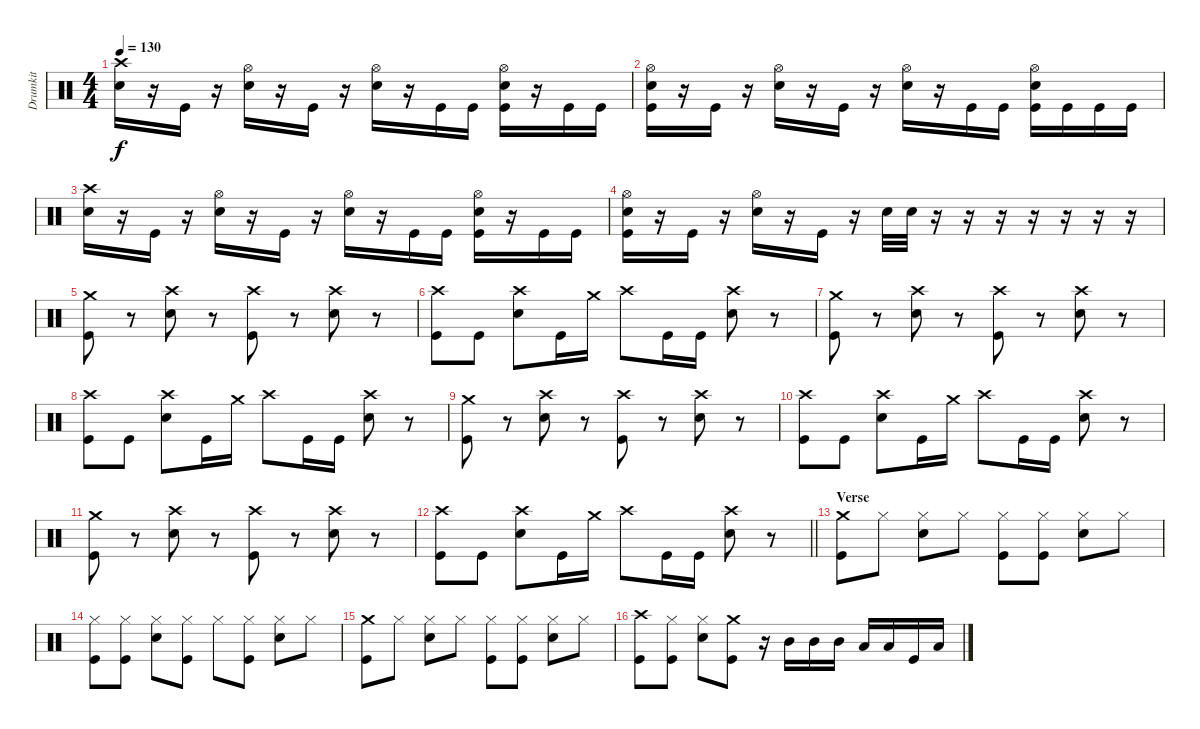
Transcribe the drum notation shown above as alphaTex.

\track ("Drumkit" "Drumkit") {instrument percussion}
\staff {score}
\articulation defaults
\ts (4 4)
\tempo 130
\clef neutral
\ks c
("Crash high (hit)" "Snare (hit) 2").16{dy f} r.16 "Kick (hit)".16 r.16 ("Hi-Hat (open)" "Snare (hit) 2").16 r.16 "Kick (hit)".16 r.16 ("Hi-Hat (open)" "Snare (hit) 2").16 r.16 "Kick (hit)".16 "Kick (hit)".16 ("Hi-Hat (open)" "Snare (hit) 2" "Kick (hit)").16 r.16 "Kick (hit)".16 "Kick (hit)".16 |
("Hi-Hat (open)" "Snare (hit) 2" "Kick (hit)").16 r.16 "Kick (hit)".16 r.16 ("Hi-Hat (open)" "Snare (hit) 2").16 r.16 "Kick (hit)".16 r.16 ("Hi-Hat (open)" "Snare (hit) 2").16 r.16 "Kick (hit)".16 "Kick (hit)".16 ("Hi-Hat (open)" "Snare (hit) 2" "Kick (hit)").16 "Kick (hit)".16 "Kick (hit)".16 "Kick (hit)".16 |
("Crash high (hit)" "Snare (hit) 2").16 r.16 "Kick (hit)".16 r.16 ("Hi-Hat (open)" "Snare (hit) 2").16 r.16 "Kick (hit)".16 r.16 ("Hi-Hat (open)" "Snare (hit) 2").16 r.16 "Kick (hit)".16 "Kick (hit)".16 ("Hi-Hat (open)" "Snare (hit) 2" "Kick (hit)").16 r.16 "Kick (hit)".16 "Kick (hit)".16 |
("Hi-Hat (open)" "Snare (hit) 2" "Kick (hit)").16 r.16 "Kick (hit)".16 r.16 ("Hi-Hat (open)" "Snare (hit) 2").16 r.16 "Kick (hit)".16 r.16 "Snare (hit) 2".32 "Snare (hit) 2".32 r.16 r.16 r.16 r.16 r.16 r.16 r.16 |
("Crash medium (hit)" "Kick (hit)").8 r.8 ("Crash high (hit)" "Snare (hit) 2").8 r.8 ("Crash high (hit)" "Kick (hit)").8 r.8 ("Crash high (hit)" "Snare (hit) 2").8 r.8 |
("Crash high (hit)" "Kick (hit)").8 "Kick (hit)".8 ("Crash high (hit)" "Snare (hit) 2").8 "Kick (hit)".16 "Crash medium (hit)".16 "Crash high (hit)".8 "Kick (hit)".16 "Kick (hit)".16 ("Crash high (hit)" "Snare (hit) 2").8 r.8 |
("Crash medium (hit)" "Kick (hit)").8 r.8 ("Crash high (hit)" "Snare (hit) 2").8 r.8 ("Crash high (hit)" "Kick (hit)").8 r.8 ("Crash high (hit)" "Snare (hit) 2").8 r.8 |
("Crash high (hit)" "Kick (hit)").8 "Kick (hit)".8 ("Crash high (hit)" "Snare (hit) 2").8 "Kick (hit)".16 "Crash medium (hit)".16 "Crash high (hit)".8 "Kick (hit)".16 "Kick (hit)".16 ("Crash high (hit)" "Snare (hit) 2").8 r.8 |
("Crash medium (hit)" "Kick (hit)").8 r.8 ("Crash high (hit)" "Snare (hit) 2").8 r.8 ("Crash high (hit)" "Kick (hit)").8 r.8 ("Crash high (hit)" "Snare (hit) 2").8 r.8 |
("Crash high (hit)" "Kick (hit)").8 "Kick (hit)".8 ("Crash high (hit)" "Snare (hit) 2").8 "Kick (hit)".16 "Crash medium (hit)".16 "Crash high (hit)".8 "Kick (hit)".16 "Kick (hit)".16 ("Crash high (hit)" "Snare (hit) 2").8 r.8 |
("Crash medium (hit)" "Kick (hit)").8 r.8 ("Crash high (hit)" "Snare (hit) 2").8 r.8 ("Crash high (hit)" "Kick (hit)").8 r.8 ("Crash high (hit)" "Snare (hit) 2").8 r.8 |
\barLineRight lightlight
("Crash high (hit)" "Kick (hit)").8 "Kick (hit)".8 ("Crash high (hit)" "Snare (hit) 2").8 "Kick (hit)".16 "Crash medium (hit)".16 "Crash high (hit)".8 "Kick (hit)".16 "Kick (hit)".16 ("Crash high (hit)" "Snare (hit) 2").8 r.8 |
\section ("" "Verse")
("Crash medium (hit)" "Kick (hit)").8 "Hi-Hat (closed)".8 ("Hi-Hat (closed)" "Snare (hit) 2").8 "Hi-Hat (closed)".8 ("Hi-Hat (closed)" "Kick (hit)").8 ("Hi-Hat (closed)" "Kick (hit)").8 ("Hi-Hat (closed)" "Snare (hit) 2").8 "Hi-Hat (closed)".8 |
("Hi-Hat (closed)" "Kick (hit)").8 ("Hi-Hat (closed)" "Kick (hit)").8 ("Hi-Hat (closed)" "Snare (hit) 2").8 ("Hi-Hat (closed)" "Kick (hit)").8 "Hi-Hat (closed)".8 ("Hi-Hat (closed)" "Kick (hit)").8 ("Hi-Hat (closed)" "Snare (hit) 2").8 "Hi-Hat (closed)".8 |
("Crash medium (hit)" "Kick (hit)").8 "Hi-Hat (closed)".8 ("Hi-Hat (closed)" "Snare (hit) 2").8 "Hi-Hat (closed)".8 ("Hi-Hat (closed)" "Kick (hit)").8 ("Hi-Hat (closed)" "Kick (hit)").8 ("Hi-Hat (closed)" "Snare (hit) 2").8 "Hi-Hat (closed)".8 |
("Crash high (hit)" "Kick (hit)").8 ("Hi-Hat (closed)" "Kick (hit)").8 ("Hi-Hat (closed)" "Snare (hit) 2").8 ("Crash medium (hit)" "Kick (hit)").8 r.16 "Mid Tom (hit)".16 "Mid Tom (hit)".16 "Mid Tom (hit)".16 "Low Tom (hit)".16 "Low Tom (hit)".16 "Kick (hit)".16 "Low Tom (hit)".16
